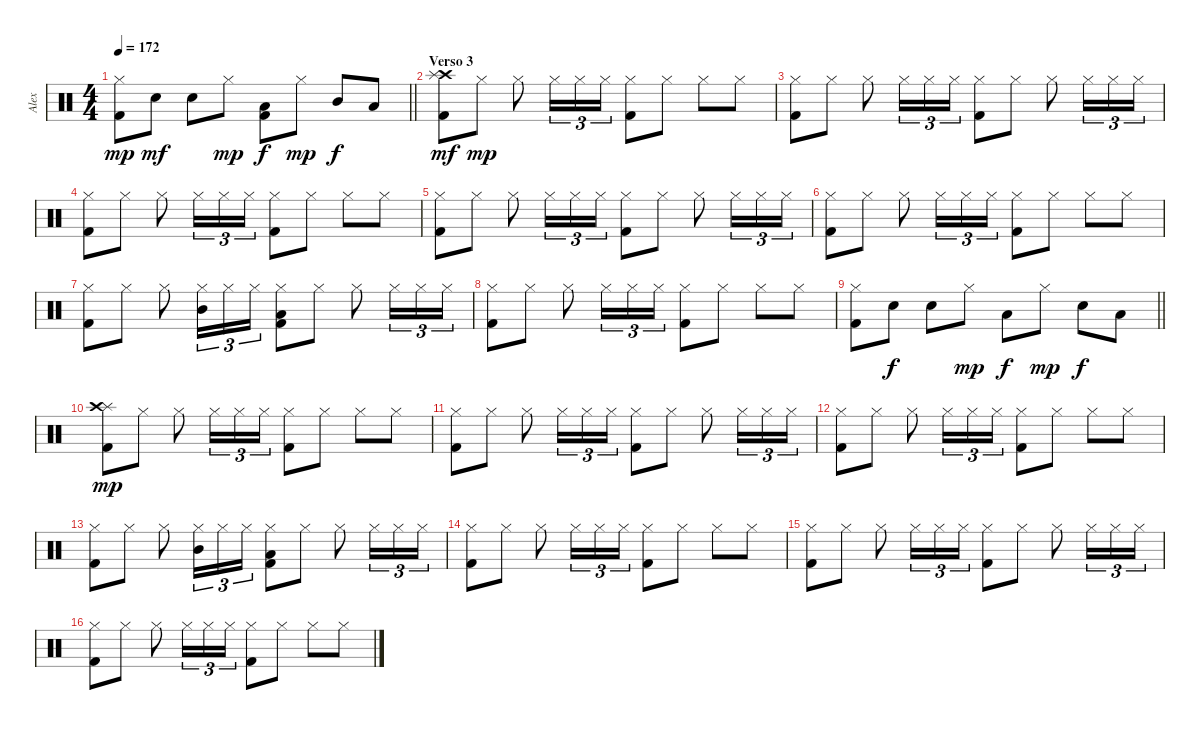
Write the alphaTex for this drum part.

\track ("Alex" "Alex") {instrument percussion}
\staff {score}
\articulation defaults
\ts (4 4)
\tempo 172
\clef neutral
\barLineRight lightlight
\ks c
("Hi-Hat (closed)" "Kick (hit) 2").8{dy mp} "Electric Snare (hit)".8{dy mf} "Electric Snare (hit)".8 "Hi-Hat (closed)".8{dy mp} ("Low Tom (hit)" "Kick (hit) 2").8{dy f} "Hi-Hat (closed)".8{dy mp} "Mid Tom (hit)".8{dy f} "Low Tom (hit)".8 |
\section ("" "Verso 3")
("Crash high (hit)" "Splash (hit)" "Kick (hit) 2").8{dy mf} "Hi-Hat (closed)".8{dy mp} "Hi-Hat (closed)".8 "Hi-Hat (closed)".16{tu (3 2)} "Hi-Hat (closed)".16{tu (3 2)} "Hi-Hat (closed)".16{tu (3 2)} ("Hi-Hat (closed)" "Kick (hit) 2").8 "Hi-Hat (closed)".8 "Hi-Hat (closed)".8 "Hi-Hat (closed)".8 |
("Hi-Hat (closed)" "Kick (hit) 2").8 "Hi-Hat (closed)".8 "Hi-Hat (closed)".8 "Hi-Hat (closed)".16{tu (3 2)} "Hi-Hat (closed)".16{tu (3 2)} "Hi-Hat (closed)".16{tu (3 2)} ("Hi-Hat (closed)" "Kick (hit) 2").8 "Hi-Hat (closed)".8 "Hi-Hat (closed)".8 "Hi-Hat (closed)".16{tu (3 2)} "Hi-Hat (closed)".16{tu (3 2)} "Hi-Hat (closed)".16{tu (3 2)} |
("Hi-Hat (closed)" "Kick (hit) 2").8 "Hi-Hat (closed)".8 "Hi-Hat (closed)".8 "Hi-Hat (closed)".16{tu (3 2)} "Hi-Hat (closed)".16{tu (3 2)} "Hi-Hat (closed)".16{tu (3 2)} ("Hi-Hat (closed)" "Kick (hit) 2").8 "Hi-Hat (closed)".8 "Hi-Hat (closed)".8 "Hi-Hat (closed)".8 |
("Hi-Hat (closed)" "Kick (hit) 2").8 "Hi-Hat (closed)".8 "Hi-Hat (closed)".8 "Hi-Hat (closed)".16{tu (3 2)} "Hi-Hat (closed)".16{tu (3 2)} "Hi-Hat (closed)".16{tu (3 2)} ("Hi-Hat (closed)" "Kick (hit) 2").8 "Hi-Hat (closed)".8 "Hi-Hat (closed)".8 "Hi-Hat (closed)".16{tu (3 2)} "Hi-Hat (closed)".16{tu (3 2)} "Hi-Hat (closed)".16{tu (3 2)} |
("Hi-Hat (closed)" "Kick (hit) 2").8 "Hi-Hat (closed)".8 "Hi-Hat (closed)".8 "Hi-Hat (closed)".16{tu (3 2)} "Hi-Hat (closed)".16{tu (3 2)} "Hi-Hat (closed)".16{tu (3 2)} ("Hi-Hat (closed)" "Kick (hit) 2").8 "Hi-Hat (closed)".8 "Hi-Hat (closed)".8 "Hi-Hat (closed)".8 |
("Hi-Hat (closed)" "Kick (hit) 2").8 "Hi-Hat (closed)".8 "Hi-Hat (closed)".8 ("Hi-Hat (closed)" "Mid Tom (hit)").16{tu (3 2)} "Hi-Hat (closed)".16{tu (3 2)} "Hi-Hat (closed)".16{tu (3 2)} ("Hi-Hat (closed)" "Low Tom (hit)" "Kick (hit) 2").8 "Hi-Hat (closed)".8 "Hi-Hat (closed)".8 "Hi-Hat (closed)".16{tu (3 2)} "Hi-Hat (closed)".16{tu (3 2)} "Hi-Hat (closed)".16{tu (3 2)} |
("Hi-Hat (closed)" "Kick (hit) 2").8 "Hi-Hat (closed)".8 "Hi-Hat (closed)".8 "Hi-Hat (closed)".16{tu (3 2)} "Hi-Hat (closed)".16{tu (3 2)} "Hi-Hat (closed)".16{tu (3 2)} ("Hi-Hat (closed)" "Kick (hit) 2").8 "Hi-Hat (closed)".8 "Hi-Hat (closed)".8 "Hi-Hat (closed)".8 |
\barLineRight lightlight
("Hi-Hat (closed)" "Kick (hit) 2").8 "Electric Snare (hit)".8{dy f} "Electric Snare (hit)".8 "Hi-Hat (closed)".8{dy mp} "Low Tom (hit)".8{dy f} "Hi-Hat (closed)".8{dy mp} "Electric Snare (hit)".8{dy f} "Low Tom (hit)".8 |
("Splash (hit)" "Crash high (hit)" "Kick (hit) 2").8{dy mp} "Hi-Hat (closed)".8 "Hi-Hat (closed)".8 "Hi-Hat (closed)".16{tu (3 2)} "Hi-Hat (closed)".16{tu (3 2)} "Hi-Hat (closed)".16{tu (3 2)} ("Hi-Hat (closed)" "Kick (hit) 2").8 "Hi-Hat (closed)".8 "Hi-Hat (closed)".8 "Hi-Hat (closed)".8 |
("Hi-Hat (closed)" "Kick (hit) 2").8 "Hi-Hat (closed)".8 "Hi-Hat (closed)".8 "Hi-Hat (closed)".16{tu (3 2)} "Hi-Hat (closed)".16{tu (3 2)} "Hi-Hat (closed)".16{tu (3 2)} ("Hi-Hat (closed)" "Kick (hit) 2").8 "Hi-Hat (closed)".8 "Hi-Hat (closed)".8 "Hi-Hat (closed)".16{tu (3 2)} "Hi-Hat (closed)".16{tu (3 2)} "Hi-Hat (closed)".16{tu (3 2)} |
("Hi-Hat (closed)" "Kick (hit) 2").8 "Hi-Hat (closed)".8 "Hi-Hat (closed)".8 "Hi-Hat (closed)".16{tu (3 2)} "Hi-Hat (closed)".16{tu (3 2)} "Hi-Hat (closed)".16{tu (3 2)} ("Hi-Hat (closed)" "Kick (hit) 2").8 "Hi-Hat (closed)".8 "Hi-Hat (closed)".8 "Hi-Hat (closed)".8 |
("Hi-Hat (closed)" "Kick (hit) 2").8 "Hi-Hat (closed)".8 "Hi-Hat (closed)".8 ("Hi-Hat (closed)" "Mid Tom (hit)").16{tu (3 2)} "Hi-Hat (closed)".16{tu (3 2)} "Hi-Hat (closed)".16{tu (3 2)} ("Hi-Hat (closed)" "Low Tom (hit)" "Kick (hit) 2").8 "Hi-Hat (closed)".8 "Hi-Hat (closed)".8 "Hi-Hat (closed)".16{tu (3 2)} "Hi-Hat (closed)".16{tu (3 2)} "Hi-Hat (closed)".16{tu (3 2)} |
("Hi-Hat (closed)" "Kick (hit) 2").8 "Hi-Hat (closed)".8 "Hi-Hat (closed)".8 "Hi-Hat (closed)".16{tu (3 2)} "Hi-Hat (closed)".16{tu (3 2)} "Hi-Hat (closed)".16{tu (3 2)} ("Hi-Hat (closed)" "Kick (hit) 2").8 "Hi-Hat (closed)".8 "Hi-Hat (closed)".8 "Hi-Hat (closed)".8 |
("Hi-Hat (closed)" "Kick (hit) 2").8 "Hi-Hat (closed)".8 "Hi-Hat (closed)".8 "Hi-Hat (closed)".16{tu (3 2)} "Hi-Hat (closed)".16{tu (3 2)} "Hi-Hat (closed)".16{tu (3 2)} ("Hi-Hat (closed)" "Kick (hit) 2").8 "Hi-Hat (closed)".8 "Hi-Hat (closed)".8 "Hi-Hat (closed)".16{tu (3 2)} "Hi-Hat (closed)".16{tu (3 2)} "Hi-Hat (closed)".16{tu (3 2)} |
("Hi-Hat (closed)" "Kick (hit) 2").8 "Hi-Hat (closed)".8 "Hi-Hat (closed)".8 "Hi-Hat (closed)".16{tu (3 2)} "Hi-Hat (closed)".16{tu (3 2)} "Hi-Hat (closed)".16{tu (3 2)} ("Hi-Hat (closed)" "Kick (hit) 2").8 "Hi-Hat (closed)".8 "Hi-Hat (closed)".8 "Hi-Hat (closed)".8
